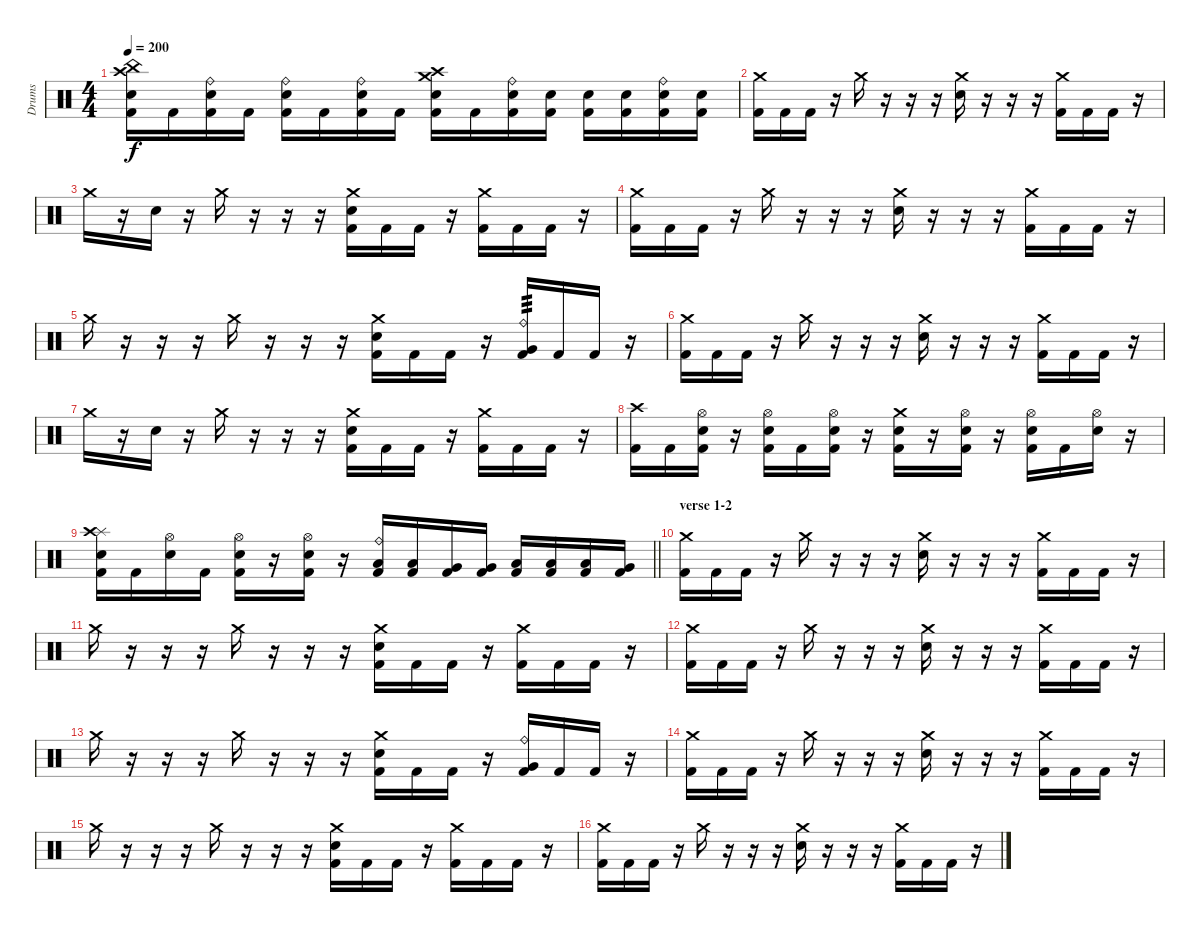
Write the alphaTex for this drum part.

\track ("Drums" "Drums") {instrument percussion}
\staff {score}
\articulation defaults
\ts (4 4)
\tempo 200
\clef neutral
\ks c
("Electric Snare (hit)" "Kick (hit) 2" "China (hit)" "Crash high (hit)").16{dy f} "Kick (hit) 2".16 ("Electric Snare (hit)" "Kick (hit) 2" "Ride (bell)").16 "Kick (hit) 2".16 ("Electric Snare (hit)" "Kick (hit) 2" "Ride (bell)").16 "Kick (hit) 2".16 ("Electric Snare (hit)" "Kick (hit) 2" "Ride (bell)").16 "Kick (hit) 2".16 ("Electric Snare (hit)" "Kick (hit) 2" "Crash high (hit)" "Crash medium (hit)").16 "Kick (hit) 2".16 ("Electric Snare (hit)" "Kick (hit) 2" "Ride (bell)").16 ("Electric Snare (hit)" "Kick (hit) 2").16 ("Electric Snare (hit)" "Kick (hit) 2").16 ("Electric Snare (hit)" "Kick (hit) 2").16 ("Electric Snare (hit)" "Kick (hit) 2" "Ride (bell)").16 ("Electric Snare (hit)" "Kick (hit) 2").16 |
("Kick (hit) 2" "Crash medium (hit)").16 "Kick (hit) 2".16 "Kick (hit) 2".16 r.16 "Crash medium (hit)".16 r.16 r.16 r.16 ("Electric Snare (hit)" "Crash medium (hit)").16 r.16 r.16 r.16 ("Kick (hit) 2" "Crash medium (hit)").16 "Kick (hit) 2".16 "Kick (hit) 2".16 r.16 |
"Crash medium (hit)".16 r.16 "Electric Snare (hit)".16 r.16 "Crash medium (hit)".16 r.16 r.16 r.16 ("Electric Snare (hit)" "Kick (hit) 2" "Crash medium (hit)").16 "Kick (hit) 2".16 "Kick (hit) 2".16 r.16 ("Kick (hit) 2" "Crash medium (hit)").16 "Kick (hit) 2".16 "Kick (hit) 2".16 r.16 |
("Kick (hit) 2" "Crash medium (hit)").16 "Kick (hit) 2".16 "Kick (hit) 2".16 r.16 "Crash medium (hit)".16 r.16 r.16 r.16 ("Electric Snare (hit)" "Crash medium (hit)").16 r.16 r.16 r.16 ("Kick (hit) 2" "Crash medium (hit)").16 "Kick (hit) 2".16 "Kick (hit) 2".16 r.16 |
"Crash medium (hit)".16 r.16 r.16 r.16 "Crash medium (hit)".16 r.16 r.16 r.16 ("Electric Snare (hit)" "Kick (hit) 2" "Crash medium (hit)").16 "Kick (hit) 2".16 "Kick (hit) 2".16 r.16 ("Kick (hit) 2" "Very Low Tom (hit)" "Ride (bell)").16{tp 3} "Kick (hit) 2".16 "Kick (hit) 2".16 r.16 |
("Kick (hit) 2" "Crash medium (hit)").16 "Kick (hit) 2".16 "Kick (hit) 2".16 r.16 "Crash medium (hit)".16 r.16 r.16 r.16 ("Electric Snare (hit)" "Crash medium (hit)").16 r.16 r.16 r.16 ("Kick (hit) 2" "Crash medium (hit)").16 "Kick (hit) 2".16 "Kick (hit) 2".16 r.16 |
"Crash medium (hit)".16 r.16 "Electric Snare (hit)".16 r.16 "Crash medium (hit)".16 r.16 r.16 r.16 ("Electric Snare (hit)" "Kick (hit) 2" "Crash medium (hit)").16 "Kick (hit) 2".16 "Kick (hit) 2".16 r.16 ("Kick (hit) 2" "Crash medium (hit)").16 "Kick (hit) 2".16 "Kick (hit) 2".16 r.16 |
("Kick (hit) 2" "Crash high (hit)").16 "Kick (hit) 2".16 ("Electric Snare (hit)" "Kick (hit) 2" "Hi-Hat (open)").16 r.16 ("Electric Snare (hit)" "Kick (hit) 2" "Hi-Hat (open)").16 "Kick (hit) 2".16 ("Electric Snare (hit)" "Kick (hit) 2" "Hi-Hat (open)").16 r.16 ("Electric Snare (hit)" "Kick (hit) 2" "Crash medium (hit)").16 r.16 ("Electric Snare (hit)" "Kick (hit) 2" "Hi-Hat (open)").16 r.16 ("Electric Snare (hit)" "Kick (hit) 2" "Hi-Hat (open)").16 "Kick (hit) 2".16 ("Electric Snare (hit)" "Hi-Hat (open)").16 r.16 |
\barLineRight lightlight
("Electric Snare (hit)" "Kick (hit) 2" "Splash (hit)" "Crash high (hit)").16 "Kick (hit) 2".16 ("Electric Snare (hit)" "Hi-Hat (open)").16 "Kick (hit) 2".16 ("Electric Snare (hit)" "Kick (hit) 2" "Hi-Hat (open)").16 r.16 ("Electric Snare (hit)" "Kick (hit) 2" "Hi-Hat (open)").16 r.16 ("Kick (hit) 2" "Low Tom (hit)" "Ride (bell)").16 ("Kick (hit) 2" "Low Tom (hit)").16 ("Kick (hit) 2" "Very Low Tom (hit)").16 ("Kick (hit) 2" "Very Low Tom (hit)").16 ("Kick (hit) 2" "Low Tom (hit)").16 ("Kick (hit) 2" "Low Floor Tom (hit)").16 ("Kick (hit) 2" "Low Floor Tom (hit)").16 ("Kick (hit) 2" "Very Low Tom (hit)").16 |
\section ("" "verse 1-2")
("Kick (hit) 2" "Crash medium (hit)").16 "Kick (hit) 2".16 "Kick (hit) 2".16 r.16 "Crash medium (hit)".16 r.16 r.16 r.16 ("Electric Snare (hit)" "Crash medium (hit)").16 r.16 r.16 r.16 ("Kick (hit) 2" "Crash medium (hit)").16 "Kick (hit) 2".16 "Kick (hit) 2".16 r.16 |
"Crash medium (hit)".16 r.16 r.16 r.16 "Crash medium (hit)".16 r.16 r.16 r.16 ("Electric Snare (hit)" "Kick (hit) 2" "Crash medium (hit)").16 "Kick (hit) 2".16 "Kick (hit) 2".16 r.16 ("Kick (hit) 2" "Crash medium (hit)").16 "Kick (hit) 2".16 "Kick (hit) 2".16 r.16 |
("Kick (hit) 2" "Crash medium (hit)").16 "Kick (hit) 2".16 "Kick (hit) 2".16 r.16 "Crash medium (hit)".16 r.16 r.16 r.16 ("Electric Snare (hit)" "Crash medium (hit)").16 r.16 r.16 r.16 ("Kick (hit) 2" "Crash medium (hit)").16 "Kick (hit) 2".16 "Kick (hit) 2".16 r.16 |
"Crash medium (hit)".16 r.16 r.16 r.16 "Crash medium (hit)".16 r.16 r.16 r.16 ("Electric Snare (hit)" "Kick (hit) 2" "Crash medium (hit)").16 "Kick (hit) 2".16 "Kick (hit) 2".16 r.16 ("Kick (hit) 2" "Very Low Tom (hit)" "Ride (bell)").16 "Kick (hit) 2".16 "Kick (hit) 2".16 r.16 |
("Kick (hit) 2" "Crash medium (hit)").16 "Kick (hit) 2".16 "Kick (hit) 2".16 r.16 "Crash medium (hit)".16 r.16 r.16 r.16 ("Electric Snare (hit)" "Crash medium (hit)").16 r.16 r.16 r.16 ("Kick (hit) 2" "Crash medium (hit)").16 "Kick (hit) 2".16 "Kick (hit) 2".16 r.16 |
"Crash medium (hit)".16 r.16 r.16 r.16 "Crash medium (hit)".16 r.16 r.16 r.16 ("Electric Snare (hit)" "Kick (hit) 2" "Crash medium (hit)").16 "Kick (hit) 2".16 "Kick (hit) 2".16 r.16 ("Kick (hit) 2" "Crash medium (hit)").16 "Kick (hit) 2".16 "Kick (hit) 2".16 r.16 |
("Kick (hit) 2" "Crash medium (hit)").16 "Kick (hit) 2".16 "Kick (hit) 2".16 r.16 "Crash medium (hit)".16 r.16 r.16 r.16 ("Electric Snare (hit)" "Crash medium (hit)").16 r.16 r.16 r.16 ("Kick (hit) 2" "Crash medium (hit)").16 "Kick (hit) 2".16 "Kick (hit) 2".16 r.16
